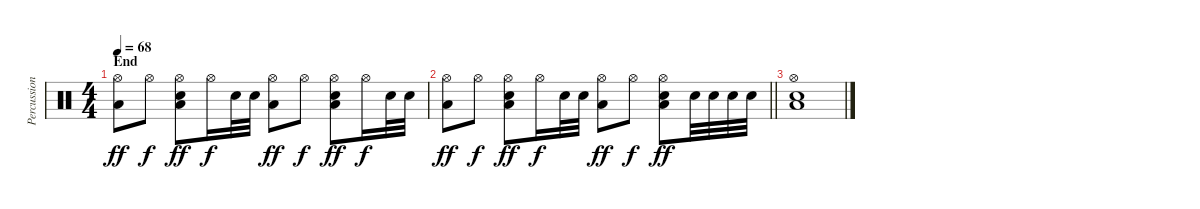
\track ("Percussion" "Percussion") {instrument percussion}
\staff {score}
\articulation defaults
\ts (4 4)
\section ("" "End")
\tempo 68
\clef neutral
\ks c
("Hi-Hat (open)" "Low Floor Tom (hit)").8{dy ff} "Hi-Hat (open)".8{dy f} ("Hi-Hat (open)" "Snare (hit) 2" "Low Floor Tom (hit)").8{dy ff} "Hi-Hat (open)".16{dy f} "Snare (hit) 2".32 "Snare (hit) 2".32 ("Hi-Hat (open)" "Low Floor Tom (hit)").8{dy ff} "Hi-Hat (open)".8{dy f} ("Hi-Hat (open)" "Snare (hit) 2" "Low Floor Tom (hit)").8{dy ff} "Hi-Hat (open)".16{dy f} "Snare (hit) 2".32 "Snare (hit) 2".32 |
\barLineRight lightlight
("Hi-Hat (open)" "Low Floor Tom (hit)").8{dy ff} "Hi-Hat (open)".8{dy f} ("Hi-Hat (open)" "Snare (hit) 2" "Low Floor Tom (hit)").8{dy ff} "Hi-Hat (open)".16{dy f} "Snare (hit) 2".32 "Snare (hit) 2".32 ("Hi-Hat (open)" "Low Floor Tom (hit)").8{dy ff} "Hi-Hat (open)".8{dy f} ("Hi-Hat (open)" "Snare (hit) 2" "Low Floor Tom (hit)").8{dy ff} "Snare (hit) 2".32 "Snare (hit) 2".32 "Snare (hit) 2".32 "Snare (hit) 2".32 |
("Hi-Hat (open)" "Snare (hit) 2" "Low Floor Tom (hit)").1
